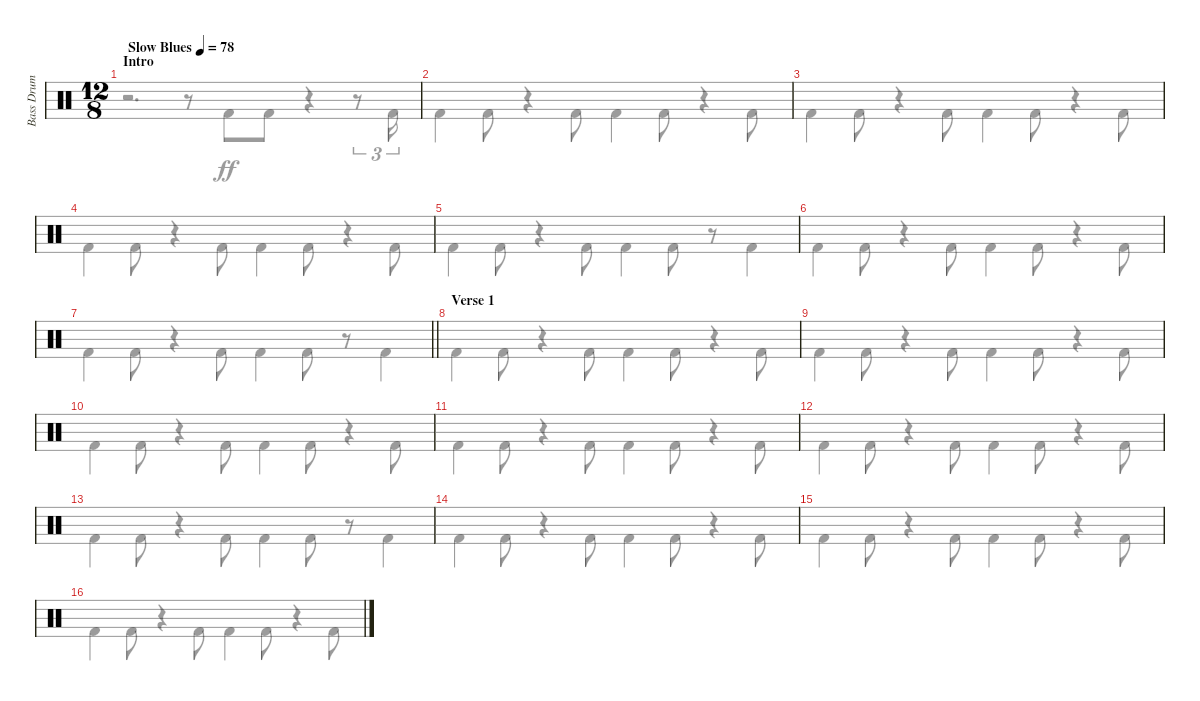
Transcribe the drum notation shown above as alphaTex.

\track ("Bass Drum" "Bass Drum") {instrument percussion}
\staff {score}
\articulation defaults
\voice
\ts (12 8)
\section ("" "Intro")
\tempo (78 "Slow Blues")
\clef neutral
\ks c
|
|
|
|
|
|
\barLineRight lightlight
|
\section ("" "Verse 1")
|
|
|
|
|
|
|
|
\voice
\clef neutral
\ks c
r.2{d dy ff} r.8 "Kick (hit) 2".8 "Kick (hit) 2".8 r.4 r.8{tu (3 2)} "Kick (hit) 2".16{tu (3 2)} |
"Kick (hit) 2".4 "Kick (hit) 2".8 r.4 "Kick (hit) 2".8 "Kick (hit) 2".4 "Kick (hit) 2".8 r.4 "Kick (hit) 2".8 |
"Kick (hit) 2".4 "Kick (hit) 2".8 r.4 "Kick (hit) 2".8 "Kick (hit) 2".4 "Kick (hit) 2".8 r.4 "Kick (hit) 2".8 |
"Kick (hit) 2".4 "Kick (hit) 2".8 r.4 "Kick (hit) 2".8 "Kick (hit) 2".4 "Kick (hit) 2".8 r.4 "Kick (hit) 2".8 |
"Kick (hit) 2".4 "Kick (hit) 2".8 r.4 "Kick (hit) 2".8 "Kick (hit) 2".4 "Kick (hit) 2".8 r.8 "Kick (hit) 2".4 |
"Kick (hit) 2".4 "Kick (hit) 2".8 r.4 "Kick (hit) 2".8 "Kick (hit) 2".4 "Kick (hit) 2".8 r.4 "Kick (hit) 2".8 |
\barLineRight lightlight "Kick (hit) 2".4 "Kick (hit) 2".8
r.4 "Kick (hit) 2".8 "Kick (hit) 2".4 "Kick (hit) 2".8 r.8 "Kick (hit) 2".4 |
"Kick (hit) 2".4 "Kick (hit) 2".8 r.4 "Kick (hit) 2".8 "Kick (hit) 2".4 "Kick (hit) 2".8 r.4 "Kick (hit) 2".8 |
"Kick (hit) 2".4 "Kick (hit) 2".8 r.4 "Kick (hit) 2".8 "Kick (hit) 2".4 "Kick (hit) 2".8 r.4 "Kick (hit) 2".8 |
"Kick (hit) 2".4 "Kick (hit) 2".8 r.4 "Kick (hit) 2".8 "Kick (hit) 2".4 "Kick (hit) 2".8 r.4 "Kick (hit) 2".8 |
"Kick (hit) 2".4 "Kick (hit) 2".8 r.4 "Kick (hit) 2".8 "Kick (hit) 2".4 "Kick (hit) 2".8 r.4 "Kick (hit) 2".8 |
"Kick (hit) 2".4 "Kick (hit) 2".8 r.4 "Kick (hit) 2".8 "Kick (hit) 2".4 "Kick (hit) 2".8 r.4 "Kick (hit) 2".8 |
"Kick (hit) 2".4 "Kick (hit) 2".8 r.4 "Kick (hit) 2".8 "Kick (hit) 2".4 "Kick (hit) 2".8 r.8 "Kick (hit) 2".4 |
"Kick (hit) 2".4 "Kick (hit) 2".8 r.4 "Kick (hit) 2".8 "Kick (hit) 2".4 "Kick (hit) 2".8 r.4 "Kick (hit) 2".8 |
"Kick (hit) 2".4 "Kick (hit) 2".8 r.4 "Kick (hit) 2".8 "Kick (hit) 2".4 "Kick (hit) 2".8 r.4 "Kick (hit) 2".8 |
"Kick (hit) 2".4 "Kick (hit) 2".8 r.4 "Kick (hit) 2".8 "Kick (hit) 2".4 "Kick (hit) 2".8 r.4 "Kick (hit) 2".8
